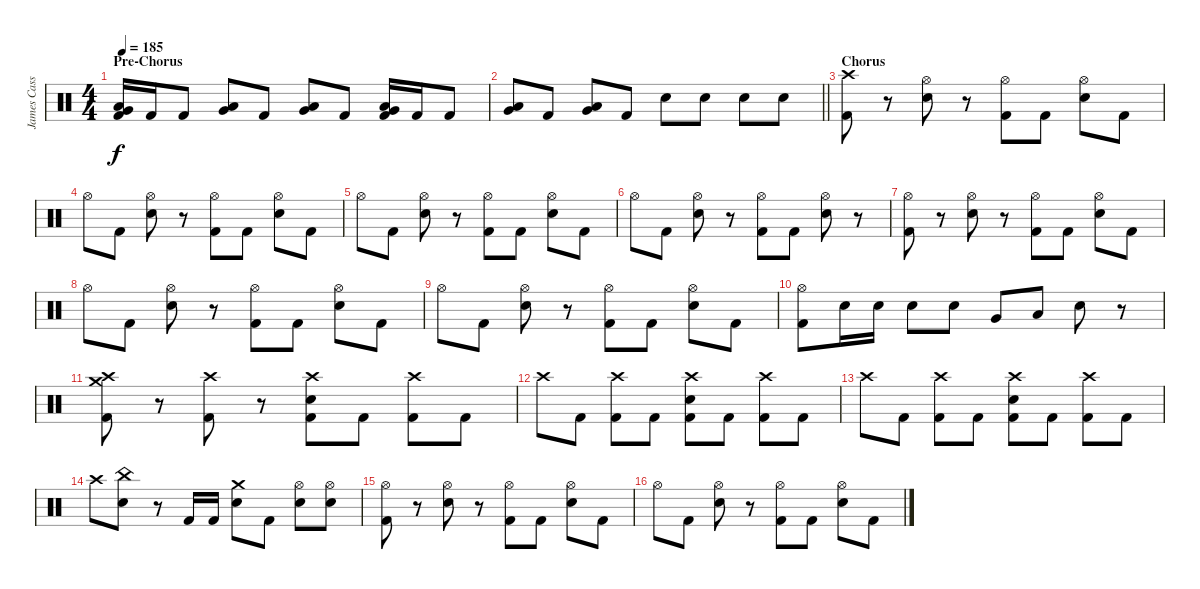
\track ("James Cassells (Drums)" "James Cass") {instrument percussion}
\staff {score}
\articulation defaults
\ts (4 4)
\section ("" "Pre-Chorus")
\tempo 185
\clef neutral
\ks c
("Very Low Tom (hit)" "Low Floor Tom (hit)" "Kick (hit) 2").16{dy f} "Kick (hit) 2".16 "Kick (hit) 2".8 ("Very Low Tom (hit)" "Low Floor Tom (hit)").8 "Kick (hit) 2".8 ("Very Low Tom (hit)" "Low Floor Tom (hit)").8 "Kick (hit) 2".8 ("Very Low Tom (hit)" "Low Floor Tom (hit)" "Kick (hit) 2").16 "Kick (hit) 2".16 "Kick (hit) 2".8 |
\barLineRight lightlight
("Very Low Tom (hit)" "Low Floor Tom (hit)").8 "Kick (hit) 2".8 ("Very Low Tom (hit)" "Low Floor Tom (hit)").8 "Kick (hit) 2".8 "Snare (hit) 2".8 "Snare (hit) 2".8 "Snare (hit) 2".8 "Snare (hit) 2".8 |
\section ("" "Chorus")
("Crash high (hit)" "Kick (hit) 2").8 r.8 ("Hi-Hat (open)" "Snare (hit) 2").8 r.8 ("Hi-Hat (open)" "Kick (hit) 2").8 "Kick (hit) 2".8 ("Hi-Hat (open)" "Snare (hit) 2").8 "Kick (hit) 2".8 |
"Hi-Hat (open)".8 "Kick (hit) 2".8 ("Hi-Hat (open)" "Snare (hit) 2").8 r.8 ("Hi-Hat (open)" "Kick (hit) 2").8 "Kick (hit) 2".8 ("Hi-Hat (open)" "Snare (hit) 2").8 "Kick (hit) 2".8 |
"Hi-Hat (open)".8 "Kick (hit) 2".8 ("Hi-Hat (open)" "Snare (hit) 2").8 r.8 ("Hi-Hat (open)" "Kick (hit) 2").8 "Kick (hit) 2".8 ("Hi-Hat (open)" "Snare (hit) 2").8 "Kick (hit) 2".8 |
"Hi-Hat (open)".8 "Kick (hit) 2".8 ("Hi-Hat (open)" "Snare (hit) 2").8 r.8 ("Hi-Hat (open)" "Kick (hit) 2").8 "Kick (hit) 2".8 ("Hi-Hat (open)" "Snare (hit) 2").8 r.8 |
("Hi-Hat (open)" "Kick (hit) 2").8 r.8 ("Hi-Hat (open)" "Snare (hit) 2").8 r.8 ("Hi-Hat (open)" "Kick (hit) 2").8 "Kick (hit) 2".8 ("Hi-Hat (open)" "Snare (hit) 2").8 "Kick (hit) 2".8 |
"Hi-Hat (open)".8 "Kick (hit) 2".8 ("Hi-Hat (open)" "Snare (hit) 2").8 r.8 ("Hi-Hat (open)" "Kick (hit) 2").8 "Kick (hit) 2".8 ("Hi-Hat (open)" "Snare (hit) 2").8 "Kick (hit) 2".8 |
"Hi-Hat (open)".8 "Kick (hit) 2".8 ("Hi-Hat (open)" "Snare (hit) 2").8 r.8 ("Hi-Hat (open)" "Kick (hit) 2").8 "Kick (hit) 2".8 ("Hi-Hat (open)" "Snare (hit) 2").8 "Kick (hit) 2".8 |
("Hi-Hat (open)" "Kick (hit) 2").8 "Snare (hit) 2".16 "Snare (hit) 2".16 "Snare (hit) 2".8 "Snare (hit) 2".8 "Very Low Tom (hit)".8 "Low Floor Tom (hit)".8 "Snare (hit) 2".8 r.8 |
("Crash high (hit)" "Crash medium (hit)" "Kick (hit) 2").8 r.8 ("Crash high (hit)" "Kick (hit) 2").8 r.8 ("Crash high (hit)" "Snare (hit) 2" "Kick (hit) 2").8 "Kick (hit) 2".8 ("Crash high (hit)" "Kick (hit) 2").8 "Kick (hit) 2".8 |
"Crash high (hit)".8 "Kick (hit) 2".8 ("Crash high (hit)" "Kick (hit) 2").8 "Kick (hit) 2".8 ("Crash high (hit)" "Snare (hit) 2" "Kick (hit) 2").8 "Kick (hit) 2".8 ("Crash high (hit)" "Kick (hit) 2").8 "Kick (hit) 2".8 |
"Crash high (hit)".8 "Kick (hit) 2".8 ("Crash high (hit)" "Kick (hit) 2").8 "Kick (hit) 2".8 ("Crash high (hit)" "Snare (hit) 2" "Kick (hit) 2").8 "Kick (hit) 2".8 ("Crash high (hit)" "Kick (hit) 2").8 "Kick (hit) 2".8 |
"Crash high (hit)".8 ("China (hit)" "Snare (hit) 2").8 r.8 "Kick (hit) 2".16 "Kick (hit) 2".16 ("Crash medium (hit)" "Snare (hit) 2").8 "Kick (hit) 2".8 ("Hi-Hat (open)" "Snare (hit) 2").8 ("Hi-Hat (open)" "Snare (hit) 2").8 |
("Hi-Hat (open)" "Kick (hit) 2").8 r.8 ("Hi-Hat (open)" "Snare (hit) 2").8 r.8 ("Hi-Hat (open)" "Kick (hit) 2").8 "Kick (hit) 2".8 ("Hi-Hat (open)" "Snare (hit) 2").8 "Kick (hit) 2".8 |
"Hi-Hat (open)".8 "Kick (hit) 2".8 ("Hi-Hat (open)" "Snare (hit) 2").8 r.8 ("Hi-Hat (open)" "Kick (hit) 2").8 "Kick (hit) 2".8 ("Hi-Hat (open)" "Snare (hit) 2").8 "Kick (hit) 2".8
